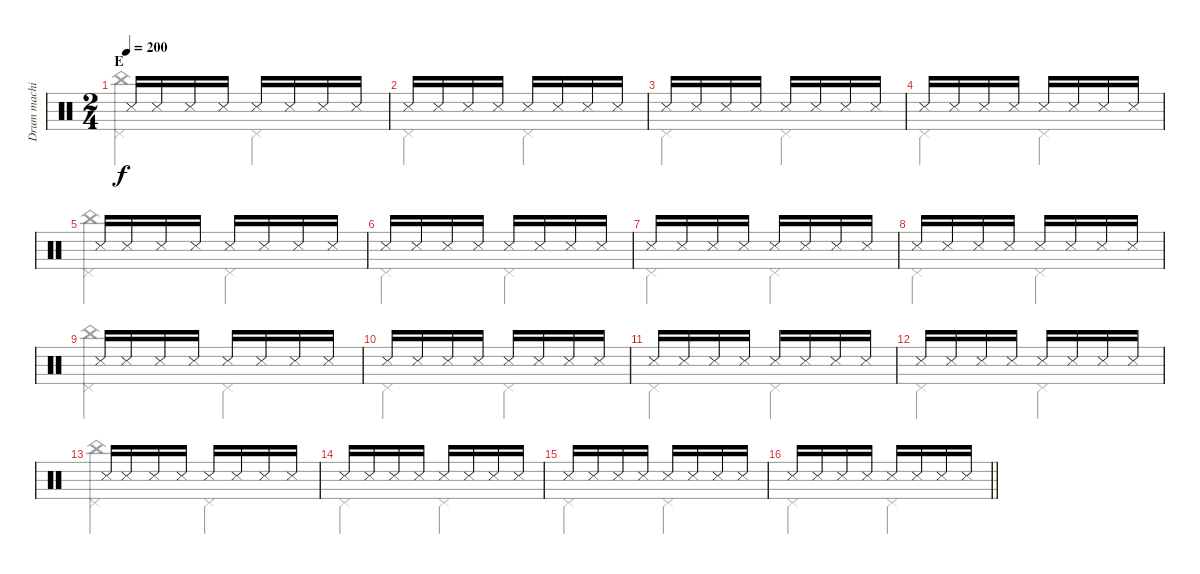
\track ("Drum machine" "Drum machi") {instrument percussion}
\staff {score}
\articulation defaults
\voice
\ts (2 4)
\section ("" "E")
\tempo 200
\clef neutral
\ks c "Snare (side stick) 3".16{dy f beam Up} "Snare (side stick) 3".16{beam Up} "Snare (side stick) 3".16{beam Up} "Snare (side stick) 3".16{beam Up} "Snare (side stick) 3".16{beam Up} "Snare (side stick) 3".16{beam Up} "Snare (side stick) 3".16{beam Up} "Snare (side stick) 3".16{beam Up}
|
"Snare (side stick) 3".16{beam Up} "Snare (side stick) 3".16{beam Up} "Snare (side stick) 3".16{beam Up} "Snare (side stick) 3".16{beam Up} "Snare (side stick) 3".16{beam Up} "Snare (side stick) 3".16{beam Up} "Snare (side stick) 3".16{beam Up} "Snare (side stick) 3".16{beam Up} |
"Snare (side stick) 3".16{beam Up} "Snare (side stick) 3".16{beam Up} "Snare (side stick) 3".16{beam Up} "Snare (side stick) 3".16{beam Up} "Snare (side stick) 3".16{beam Up} "Snare (side stick) 3".16{beam Up} "Snare (side stick) 3".16{beam Up} "Snare (side stick) 3".16{beam Up} |
"Snare (side stick) 3".16{beam Up} "Snare (side stick) 3".16{beam Up} "Snare (side stick) 3".16{beam Up} "Snare (side stick) 3".16{beam Up} "Snare (side stick) 3".16{beam Up} "Snare (side stick) 3".16{beam Up} "Snare (side stick) 3".16{beam Up} "Snare (side stick) 3".16{beam Up} |
"Snare (side stick) 3".16{beam Up} "Snare (side stick) 3".16{beam Up} "Snare (side stick) 3".16{beam Up} "Snare (side stick) 3".16{beam Up} "Snare (side stick) 3".16{beam Up} "Snare (side stick) 3".16{beam Up} "Snare (side stick) 3".16{beam Up} "Snare (side stick) 3".16{beam Up} |
"Snare (side stick) 3".16{beam Up} "Snare (side stick) 3".16{beam Up} "Snare (side stick) 3".16{beam Up} "Snare (side stick) 3".16{beam Up} "Snare (side stick) 3".16{beam Up} "Snare (side stick) 3".16{beam Up} "Snare (side stick) 3".16{beam Up} "Snare (side stick) 3".16{beam Up} |
"Snare (side stick) 3".16{beam Up} "Snare (side stick) 3".16{beam Up} "Snare (side stick) 3".16{beam Up} "Snare (side stick) 3".16{beam Up} "Snare (side stick) 3".16{beam Up} "Snare (side stick) 3".16{beam Up} "Snare (side stick) 3".16{beam Up} "Snare (side stick) 3".16{beam Up} |
"Snare (side stick) 3".16{beam Up} "Snare (side stick) 3".16{beam Up} "Snare (side stick) 3".16{beam Up} "Snare (side stick) 3".16{beam Up} "Snare (side stick) 3".16{beam Up} "Snare (side stick) 3".16{beam Up} "Snare (side stick) 3".16{beam Up} "Snare (side stick) 3".16{beam Up} |
"Snare (side stick) 3".16{beam Up} "Snare (side stick) 3".16{beam Up} "Snare (side stick) 3".16{beam Up} "Snare (side stick) 3".16{beam Up} "Snare (side stick) 3".16{beam Up} "Snare (side stick) 3".16{beam Up} "Snare (side stick) 3".16{beam Up} "Snare (side stick) 3".16{beam Up} |
"Snare (side stick) 3".16{beam Up} "Snare (side stick) 3".16{beam Up} "Snare (side stick) 3".16{beam Up} "Snare (side stick) 3".16{beam Up} "Snare (side stick) 3".16{beam Up} "Snare (side stick) 3".16{beam Up} "Snare (side stick) 3".16{beam Up} "Snare (side stick) 3".16{beam Up} |
"Snare (side stick) 3".16{beam Up} "Snare (side stick) 3".16{beam Up} "Snare (side stick) 3".16{beam Up} "Snare (side stick) 3".16{beam Up} "Snare (side stick) 3".16{beam Up} "Snare (side stick) 3".16{beam Up} "Snare (side stick) 3".16{beam Up} "Snare (side stick) 3".16{beam Up} |
"Snare (side stick) 3".16{beam Up} "Snare (side stick) 3".16{beam Up} "Snare (side stick) 3".16{beam Up} "Snare (side stick) 3".16{beam Up} "Snare (side stick) 3".16{beam Up} "Snare (side stick) 3".16{beam Up} "Snare (side stick) 3".16{beam Up} "Snare (side stick) 3".16{beam Up} |
"Snare (side stick) 3".16{beam Up} "Snare (side stick) 3".16{beam Up} "Snare (side stick) 3".16{beam Up} "Snare (side stick) 3".16{beam Up} "Snare (side stick) 3".16{beam Up} "Snare (side stick) 3".16{beam Up} "Snare (side stick) 3".16{beam Up} "Snare (side stick) 3".16{beam Up} |
"Snare (side stick) 3".16{beam Up} "Snare (side stick) 3".16{beam Up} "Snare (side stick) 3".16{beam Up} "Snare (side stick) 3".16{beam Up} "Snare (side stick) 3".16{beam Up} "Snare (side stick) 3".16{beam Up} "Snare (side stick) 3".16{beam Up} "Snare (side stick) 3".16{beam Up} |
"Snare (side stick) 3".16{beam Up} "Snare (side stick) 3".16{beam Up} "Snare (side stick) 3".16{beam Up} "Snare (side stick) 3".16{beam Up} "Snare (side stick) 3".16{beam Up} "Snare (side stick) 3".16{beam Up} "Snare (side stick) 3".16{beam Up} "Snare (side stick) 3".16{beam Up} |
\barLineRight lightlight "Snare (side stick) 3".16{beam Up} "Snare (side stick) 3".16{beam Up} "Snare (side stick) 3".16{beam Up} "Snare (side stick) 3".16{beam Up} "Snare (side stick) 3".16{beam Up} "Snare (side stick) 3".16{beam Up} "Snare (side stick) 3".16{beam Up} "Snare (side stick) 3".16{beam Up}
\voice
\clef neutral
\ottava regular
\simile none
\ks c
("China (hit)" "Pedal Hi-Hat (hit)").4{dy f} "Pedal Hi-Hat (hit)".4 |
"Pedal Hi-Hat (hit)".4 "Pedal Hi-Hat (hit)".4 |
"Pedal Hi-Hat (hit)".4 "Pedal Hi-Hat (hit)".4 |
"Pedal Hi-Hat (hit)".4 "Pedal Hi-Hat (hit)".4 |
("China (hit)" "Pedal Hi-Hat (hit)").4 "Pedal Hi-Hat (hit)".4 |
"Pedal Hi-Hat (hit)".4 "Pedal Hi-Hat (hit)".4 |
"Pedal Hi-Hat (hit)".4 "Pedal Hi-Hat (hit)".4 |
"Pedal Hi-Hat (hit)".4 "Pedal Hi-Hat (hit)".4 |
("China (hit)" "Pedal Hi-Hat (hit)").4 "Pedal Hi-Hat (hit)".4 |
"Pedal Hi-Hat (hit)".4 "Pedal Hi-Hat (hit)".4 |
"Pedal Hi-Hat (hit)".4 "Pedal Hi-Hat (hit)".4 |
"Pedal Hi-Hat (hit)".4 "Pedal Hi-Hat (hit)".4 |
("China (hit)" "Pedal Hi-Hat (hit)").4 "Pedal Hi-Hat (hit)".4 |
"Pedal Hi-Hat (hit)".4 "Pedal Hi-Hat (hit)".4 |
"Pedal Hi-Hat (hit)".4 "Pedal Hi-Hat (hit)".4 |
\barLineRight lightlight "Pedal Hi-Hat (hit)".4 "Pedal Hi-Hat (hit)".4
